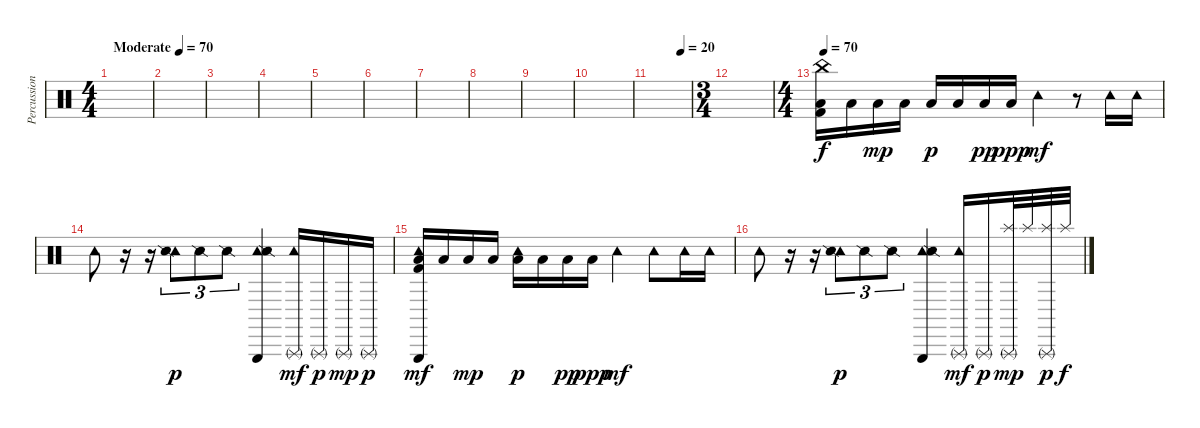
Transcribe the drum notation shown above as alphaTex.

\track ("Percussion" "Percussion") {instrument percussion}
\staff {score}
\articulation defaults
\ts (4 4)
\tempo (70 "Moderate")
\clef neutral
\ks c
|
|
|
|
|
|
|
|
|
|
\tempo (20 0.75)
|
\ts (3 4)
|
\ts (4 4)
\tempo 70
("China (hit)" "Low Floor Tom (hit)" "Kick (hit) 2").16{volume 15} "Low Floor Tom (hit)".16 "Low Floor Tom (hit)".16{dy mp} "Low Floor Tom (hit)".16 "Low Floor Tom (hit)".16{dy p} "Low Floor Tom (hit)".16 "Low Floor Tom (hit)".16{dy pp} "Low Floor Tom (hit)".16{dy ppp} "Tambourine (hit)".4{dy mf} r.8 "Tambourine (hit)".16 "Tambourine (hit)".16 |
"Tambourine (hit)".8 r.16 r.16 ("Tambourine (hit)" "Snare (side stick) 2").8{tu (3 2) dy p} "Snare (side stick) 2".8{tu (3 2)} "Snare (side stick) 2".8{tu (3 2)} ("Tambourine (hit)" "Triangle (hit)" "Snare (side stick) 2").4 ("Tambourine (hit)" "Triangle (rnute)").16{dy mf} "Triangle (rnute)".16{dy p} "Triangle (rnute)".16{dy mp} "Triangle (rnute)".16{dy p} |
("Tambourine (hit)" "Triangle (hit)" "Low Floor Tom (hit)" "Kick (hit) 2").16{dy mf} "Low Floor Tom (hit)".16 "Low Floor Tom (hit)".16{dy mp} "Low Floor Tom (hit)".16 ("Tambourine (hit)" "Low Floor Tom (hit)").16{dy p} "Low Floor Tom (hit)".16 "Low Floor Tom (hit)".16{dy pp} "Low Floor Tom (hit)".16{dy ppp} "Tambourine (hit)".4{dy mf} "Tambourine (hit)".8 "Tambourine (hit)".16 "Tambourine (hit)".16 |
"Tambourine (hit)".8 r.16 r.16 ("Tambourine (hit)" "Snare (side stick) 2").8{tu (3 2) dy p} "Snare (side stick) 2".8{tu (3 2)} "Snare (side stick) 2".8{tu (3 2)} ("Tambourine (hit)" "Triangle (hit)" "Snare (side stick) 2").4 ("Tambourine (hit)" "Triangle (rnute)").16{dy mf} "Triangle (rnute)".16{dy p} ("Splash (hit)" "Triangle (rnute)").32{dy mp} "Splash (hit)".32 ("Splash (hit)" "Triangle (rnute)").32{dy p} "Splash (hit)".32{dy f}
